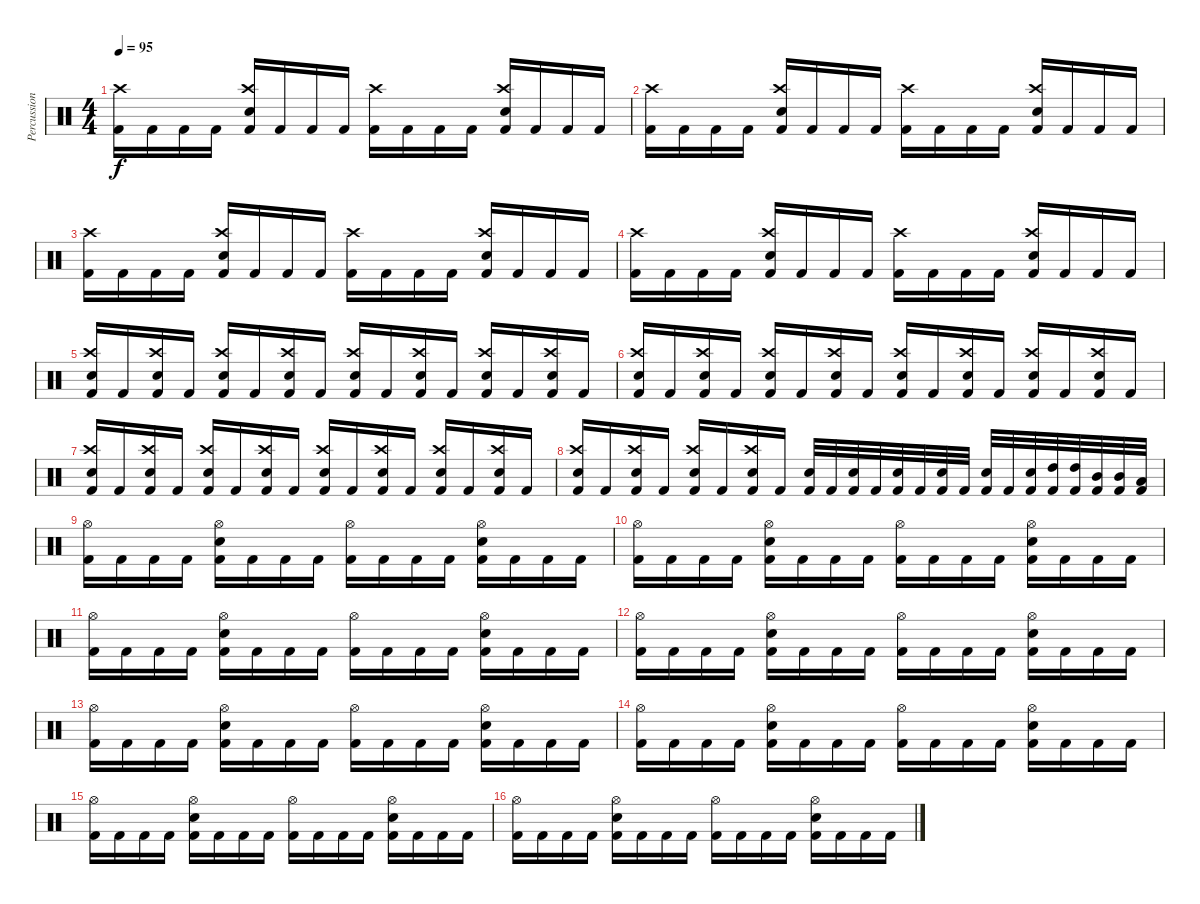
\track ("Percussion" "Percussion") {instrument percussion}
\staff {score}
\articulation defaults
\ts (4 4)
\tempo 95
\clef neutral
\ks c
("Kick (hit) 2" "Crash high (hit)").16{dy f} "Kick (hit) 2".16 "Kick (hit) 2".16 "Kick (hit) 2".16 ("Kick (hit) 2" "Crash high (hit)" "Electric Snare (hit)").16 "Kick (hit) 2".16 "Kick (hit) 2".16 "Kick (hit) 2".16 ("Kick (hit) 2" "Crash high (hit)").16 "Kick (hit) 2".16 "Kick (hit) 2".16 "Kick (hit) 2".16 ("Kick (hit) 2" "Crash high (hit)" "Electric Snare (hit)").16 "Kick (hit) 2".16 "Kick (hit) 2".16 "Kick (hit) 2".16 |
("Kick (hit) 2" "Crash high (hit)").16 "Kick (hit) 2".16 "Kick (hit) 2".16 "Kick (hit) 2".16 ("Kick (hit) 2" "Crash high (hit)" "Electric Snare (hit)").16 "Kick (hit) 2".16 "Kick (hit) 2".16 "Kick (hit) 2".16 ("Kick (hit) 2" "Crash high (hit)").16 "Kick (hit) 2".16 "Kick (hit) 2".16 "Kick (hit) 2".16 ("Kick (hit) 2" "Crash high (hit)" "Electric Snare (hit)").16 "Kick (hit) 2".16 "Kick (hit) 2".16 "Kick (hit) 2".16 |
("Kick (hit) 2" "Crash high (hit)").16 "Kick (hit) 2".16 "Kick (hit) 2".16 "Kick (hit) 2".16 ("Kick (hit) 2" "Crash high (hit)" "Electric Snare (hit)").16 "Kick (hit) 2".16 "Kick (hit) 2".16 "Kick (hit) 2".16 ("Kick (hit) 2" "Crash high (hit)").16 "Kick (hit) 2".16 "Kick (hit) 2".16 "Kick (hit) 2".16 ("Kick (hit) 2" "Crash high (hit)" "Electric Snare (hit)").16 "Kick (hit) 2".16 "Kick (hit) 2".16 "Kick (hit) 2".16 |
("Kick (hit) 2" "Crash high (hit)").16 "Kick (hit) 2".16 "Kick (hit) 2".16 "Kick (hit) 2".16 ("Kick (hit) 2" "Crash high (hit)" "Electric Snare (hit)").16 "Kick (hit) 2".16 "Kick (hit) 2".16 "Kick (hit) 2".16 ("Kick (hit) 2" "Crash high (hit)").16 "Kick (hit) 2".16 "Kick (hit) 2".16 "Kick (hit) 2".16 ("Kick (hit) 2" "Crash high (hit)" "Electric Snare (hit)").16 "Kick (hit) 2".16 "Kick (hit) 2".16 "Kick (hit) 2".16 |
("Kick (hit) 2" "Crash high (hit)" "Electric Snare (hit)").16 "Kick (hit) 2".16 ("Kick (hit) 2" "Crash high (hit)" "Electric Snare (hit)").16 "Kick (hit) 2".16 ("Kick (hit) 2" "Crash high (hit)" "Electric Snare (hit)").16 "Kick (hit) 2".16 ("Kick (hit) 2" "Crash high (hit)" "Electric Snare (hit)").16 "Kick (hit) 2".16 ("Kick (hit) 2" "Crash high (hit)" "Electric Snare (hit)").16 "Kick (hit) 2".16 ("Kick (hit) 2" "Crash high (hit)" "Electric Snare (hit)").16 "Kick (hit) 2".16 ("Kick (hit) 2" "Crash high (hit)" "Electric Snare (hit)").16 "Kick (hit) 2".16 ("Kick (hit) 2" "Crash high (hit)" "Electric Snare (hit)").16 "Kick (hit) 2".16 |
("Kick (hit) 2" "Crash high (hit)" "Electric Snare (hit)").16 "Kick (hit) 2".16 ("Kick (hit) 2" "Crash high (hit)" "Electric Snare (hit)").16 "Kick (hit) 2".16 ("Kick (hit) 2" "Crash high (hit)" "Electric Snare (hit)").16 "Kick (hit) 2".16 ("Kick (hit) 2" "Crash high (hit)" "Electric Snare (hit)").16 "Kick (hit) 2".16 ("Kick (hit) 2" "Crash high (hit)" "Electric Snare (hit)").16 "Kick (hit) 2".16 ("Kick (hit) 2" "Crash high (hit)" "Electric Snare (hit)").16 "Kick (hit) 2".16 ("Kick (hit) 2" "Crash high (hit)" "Electric Snare (hit)").16 "Kick (hit) 2".16 ("Kick (hit) 2" "Crash high (hit)" "Electric Snare (hit)").16 "Kick (hit) 2".16 |
("Kick (hit) 2" "Crash high (hit)" "Electric Snare (hit)").16 "Kick (hit) 2".16 ("Kick (hit) 2" "Crash high (hit)" "Electric Snare (hit)").16 "Kick (hit) 2".16 ("Kick (hit) 2" "Crash high (hit)" "Electric Snare (hit)").16 "Kick (hit) 2".16 ("Kick (hit) 2" "Crash high (hit)" "Electric Snare (hit)").16 "Kick (hit) 2".16 ("Kick (hit) 2" "Crash high (hit)" "Electric Snare (hit)").16 "Kick (hit) 2".16 ("Kick (hit) 2" "Crash high (hit)" "Electric Snare (hit)").16 "Kick (hit) 2".16 ("Kick (hit) 2" "Crash high (hit)" "Electric Snare (hit)").16 "Kick (hit) 2".16 ("Kick (hit) 2" "Crash high (hit)" "Electric Snare (hit)").16 "Kick (hit) 2".16 |
("Kick (hit) 2" "Crash high (hit)" "Electric Snare (hit)").16 "Kick (hit) 2".16 ("Kick (hit) 2" "Crash high (hit)" "Electric Snare (hit)").16 "Kick (hit) 2".16 ("Kick (hit) 2" "Crash high (hit)" "Electric Snare (hit)").16 "Kick (hit) 2".16 ("Kick (hit) 2" "Crash high (hit)" "Electric Snare (hit)").16 "Kick (hit) 2".16 ("Kick (hit) 2" "Electric Snare (hit)").32 "Kick (hit) 2".32 ("Kick (hit) 2" "Electric Snare (hit)").32 "Kick (hit) 2".32 ("Kick (hit) 2" "Electric Snare (hit)").32 "Kick (hit) 2".32 ("Kick (hit) 2" "Electric Snare (hit)").32 "Kick (hit) 2".32 ("Kick (hit) 2" "Electric Snare (hit)").32 "Kick (hit) 2".32 ("Kick (hit) 2" "Electric Snare (hit)").32 ("Kick (hit) 2" "High Tom (hit)").32 ("Kick (hit) 2" "High Tom (hit)").32 ("Kick (hit) 2" "Mid Tom (hit)").32 ("Kick (hit) 2" "Mid Tom (hit)").32 ("Kick (hit) 2" "Low Tom (hit)").32 |
("Kick (hit) 2" "Hi-Hat (open)").16 "Kick (hit) 2".16 "Kick (hit) 2".16 "Kick (hit) 2".16 ("Kick (hit) 2" "Hi-Hat (open)" "Electric Snare (hit)").16 "Kick (hit) 2".16 "Kick (hit) 2".16 "Kick (hit) 2".16 ("Kick (hit) 2" "Hi-Hat (open)").16 "Kick (hit) 2".16 "Kick (hit) 2".16 "Kick (hit) 2".16 ("Kick (hit) 2" "Hi-Hat (open)" "Electric Snare (hit)").16 "Kick (hit) 2".16 "Kick (hit) 2".16 "Kick (hit) 2".16 |
("Kick (hit) 2" "Hi-Hat (open)").16 "Kick (hit) 2".16 "Kick (hit) 2".16 "Kick (hit) 2".16 ("Kick (hit) 2" "Hi-Hat (open)" "Electric Snare (hit)").16 "Kick (hit) 2".16 "Kick (hit) 2".16 "Kick (hit) 2".16 ("Kick (hit) 2" "Hi-Hat (open)").16 "Kick (hit) 2".16 "Kick (hit) 2".16 "Kick (hit) 2".16 ("Kick (hit) 2" "Hi-Hat (open)" "Electric Snare (hit)").16 "Kick (hit) 2".16 "Kick (hit) 2".16 "Kick (hit) 2".16 |
("Kick (hit) 2" "Hi-Hat (open)").16 "Kick (hit) 2".16 "Kick (hit) 2".16 "Kick (hit) 2".16 ("Kick (hit) 2" "Hi-Hat (open)" "Electric Snare (hit)").16 "Kick (hit) 2".16 "Kick (hit) 2".16 "Kick (hit) 2".16 ("Kick (hit) 2" "Hi-Hat (open)").16 "Kick (hit) 2".16 "Kick (hit) 2".16 "Kick (hit) 2".16 ("Kick (hit) 2" "Hi-Hat (open)" "Electric Snare (hit)").16 "Kick (hit) 2".16 "Kick (hit) 2".16 "Kick (hit) 2".16 |
("Kick (hit) 2" "Hi-Hat (open)").16 "Kick (hit) 2".16 "Kick (hit) 2".16 "Kick (hit) 2".16 ("Kick (hit) 2" "Hi-Hat (open)" "Electric Snare (hit)").16 "Kick (hit) 2".16 "Kick (hit) 2".16 "Kick (hit) 2".16 ("Kick (hit) 2" "Hi-Hat (open)").16 "Kick (hit) 2".16 "Kick (hit) 2".16 "Kick (hit) 2".16 ("Kick (hit) 2" "Hi-Hat (open)" "Electric Snare (hit)").16 "Kick (hit) 2".16 "Kick (hit) 2".16 "Kick (hit) 2".16 |
("Kick (hit) 2" "Hi-Hat (open)").16 "Kick (hit) 2".16 "Kick (hit) 2".16 "Kick (hit) 2".16 ("Kick (hit) 2" "Hi-Hat (open)" "Electric Snare (hit)").16 "Kick (hit) 2".16 "Kick (hit) 2".16 "Kick (hit) 2".16 ("Kick (hit) 2" "Hi-Hat (open)").16 "Kick (hit) 2".16 "Kick (hit) 2".16 "Kick (hit) 2".16 ("Kick (hit) 2" "Hi-Hat (open)" "Electric Snare (hit)").16 "Kick (hit) 2".16 "Kick (hit) 2".16 "Kick (hit) 2".16 |
("Kick (hit) 2" "Hi-Hat (open)").16 "Kick (hit) 2".16 "Kick (hit) 2".16 "Kick (hit) 2".16 ("Kick (hit) 2" "Hi-Hat (open)" "Electric Snare (hit)").16 "Kick (hit) 2".16 "Kick (hit) 2".16 "Kick (hit) 2".16 ("Kick (hit) 2" "Hi-Hat (open)").16 "Kick (hit) 2".16 "Kick (hit) 2".16 "Kick (hit) 2".16 ("Kick (hit) 2" "Hi-Hat (open)" "Electric Snare (hit)").16 "Kick (hit) 2".16 "Kick (hit) 2".16 "Kick (hit) 2".16 |
("Kick (hit) 2" "Hi-Hat (open)").16 "Kick (hit) 2".16 "Kick (hit) 2".16 "Kick (hit) 2".16 ("Kick (hit) 2" "Hi-Hat (open)" "Electric Snare (hit)").16 "Kick (hit) 2".16 "Kick (hit) 2".16 "Kick (hit) 2".16 ("Kick (hit) 2" "Hi-Hat (open)").16 "Kick (hit) 2".16 "Kick (hit) 2".16 "Kick (hit) 2".16 ("Kick (hit) 2" "Hi-Hat (open)" "Electric Snare (hit)").16 "Kick (hit) 2".16 "Kick (hit) 2".16 "Kick (hit) 2".16 |
("Kick (hit) 2" "Hi-Hat (open)").16 "Kick (hit) 2".16 "Kick (hit) 2".16 "Kick (hit) 2".16 ("Kick (hit) 2" "Hi-Hat (open)" "Electric Snare (hit)").16 "Kick (hit) 2".16 "Kick (hit) 2".16 "Kick (hit) 2".16 ("Kick (hit) 2" "Hi-Hat (open)").16 "Kick (hit) 2".16 "Kick (hit) 2".16 "Kick (hit) 2".16 ("Kick (hit) 2" "Hi-Hat (open)" "Electric Snare (hit)").16 "Kick (hit) 2".16 "Kick (hit) 2".16 "Kick (hit) 2".16
